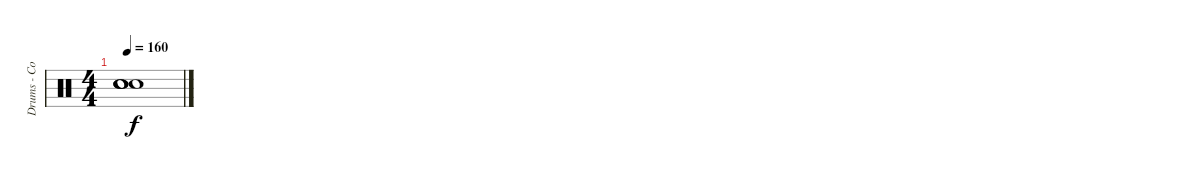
\track ("Drums - Colby" "Drums - Co") {instrument percussion}
\staff {score}
\articulation defaults
\ts (4 4)
\tempo 160
\clef neutral
\ks c
("Snare (hit)"{t} "Snare (hit)"{t} "Snare (hit)"{t} "Snare (hit)"{t}).1{dy f}
